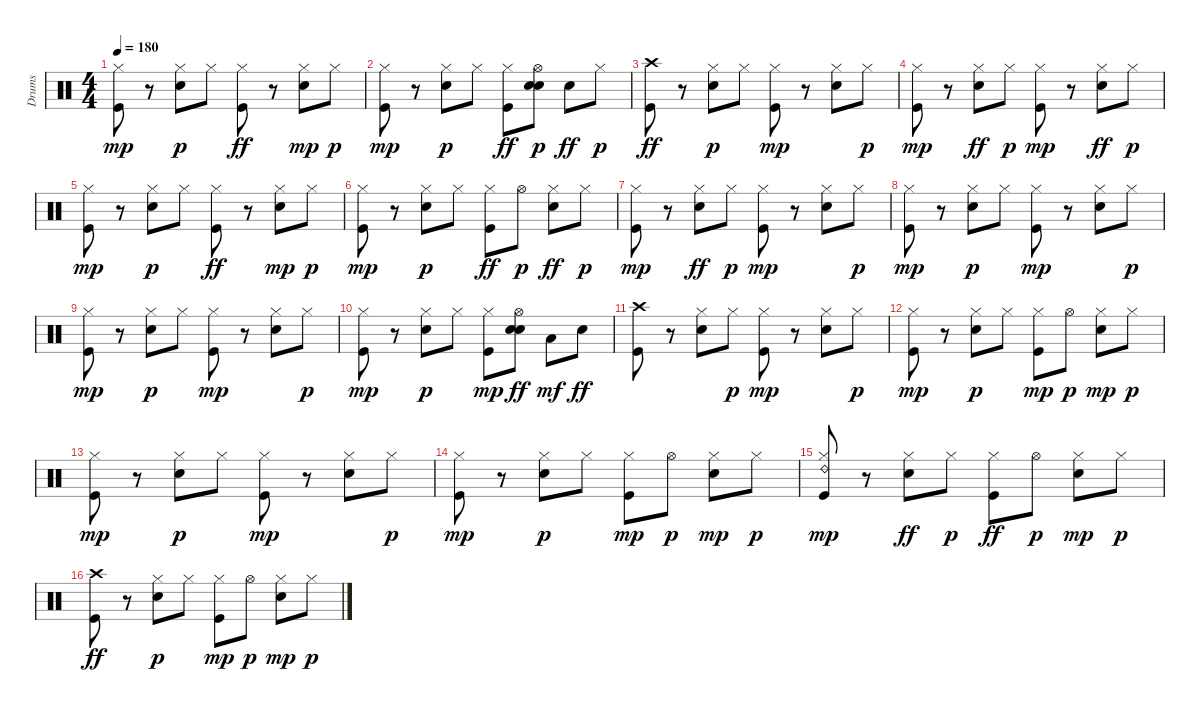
\track ("Drums" "Drums") {instrument percussion}
\staff {score}
\articulation defaults
\ts (4 4)
\tempo 180
\clef neutral
\ks c
("Kick (hit)" "Hi-Hat (closed)").8{dy mp} r.8 ("Snare (hit) 2" "Hi-Hat (closed)").8{dy p} "Hi-Hat (closed)".8 ("Hi-Hat (closed)" "Kick (hit)").8{dy ff} r.8 ("Snare (hit) 2" "Hi-Hat (closed)").8{dy mp} "Hi-Hat (closed)".8{dy p} |
("Kick (hit)" "Hi-Hat (closed)").8{dy mp} r.8 ("Snare (hit) 2" "Hi-Hat (closed)").8{dy p} "Hi-Hat (closed)".8 ("Hi-Hat (closed)" "Kick (hit)").8{dy ff} ("Snare (hit) 2" "Hi-Hat (open)" "Snare (hit) 2").8{dy p} "Snare (hit) 2".8{dy ff} "Hi-Hat (closed)".8{dy p} |
("Crash high (hit)" "Kick (hit)").8{dy ff} r.8 ("Snare (hit) 2" "Hi-Hat (closed)").8{dy p} "Hi-Hat (closed)".8 ("Kick (hit)" "Hi-Hat (closed)").8{dy mp} r.8 ("Snare (hit) 2" "Hi-Hat (closed)").8 "Hi-Hat (closed)".8{dy p} |
("Kick (hit)" "Hi-Hat (closed)").8{dy mp} r.8 ("Hi-Hat (closed)" "Snare (hit) 2").8{dy ff} "Hi-Hat (closed)".8{dy p} ("Kick (hit)" "Hi-Hat (closed)").8{dy mp} r.8 ("Hi-Hat (closed)" "Snare (hit) 2").8{dy ff} "Hi-Hat (closed)".8{dy p} |
("Kick (hit)" "Hi-Hat (closed)").8{dy mp} r.8 ("Snare (hit) 2" "Hi-Hat (closed)").8{dy p} "Hi-Hat (closed)".8 ("Hi-Hat (closed)" "Kick (hit)").8{dy ff} r.8 ("Snare (hit) 2" "Hi-Hat (closed)").8{dy mp} "Hi-Hat (closed)".8{dy p} |
("Kick (hit)" "Hi-Hat (closed)").8{dy mp} r.8 ("Snare (hit) 2" "Hi-Hat (closed)").8{dy p} "Hi-Hat (closed)".8 ("Hi-Hat (closed)" "Kick (hit)").8{dy ff} "Hi-Hat (open)".8{dy p} ("Hi-Hat (closed)" "Snare (hit) 2").8{dy ff} "Hi-Hat (closed)".8{dy p} |
("Kick (hit)" "Hi-Hat (closed)").8{dy mp} r.8 ("Hi-Hat (closed)" "Snare (hit) 2").8{dy ff} "Hi-Hat (closed)".8{dy p} ("Kick (hit)" "Hi-Hat (closed)").8{dy mp} r.8 ("Snare (hit) 2" "Hi-Hat (closed)").8 "Hi-Hat (closed)".8{dy p} |
("Kick (hit)" "Hi-Hat (closed)").8{dy mp} r.8 ("Snare (hit) 2" "Hi-Hat (closed)").8{dy p} "Hi-Hat (closed)".8 ("Kick (hit)" "Hi-Hat (closed)").8{dy mp} r.8 ("Snare (hit) 2" "Hi-Hat (closed)").8 "Hi-Hat (closed)".8{dy p} |
("Kick (hit)" "Hi-Hat (closed)").8{dy mp} r.8 ("Snare (hit) 2" "Hi-Hat (closed)").8{dy p} "Hi-Hat (closed)".8 ("Kick (hit)" "Hi-Hat (closed)").8{dy mp} r.8 ("Snare (hit) 2" "Hi-Hat (closed)").8 "Hi-Hat (closed)".8{dy p} |
("Kick (hit)" "Hi-Hat (closed)").8{dy mp} r.8 ("Snare (hit) 2" "Hi-Hat (closed)").8{dy p} "Hi-Hat (closed)".8 ("Kick (hit)" "Hi-Hat (closed)").8{dy mp} ("Snare (hit) 2" "Hi-Hat (open)" "Snare (hit) 2").8{dy ff} "Low Tom (hit)".8{dy mf} "Snare (hit) 2".8{dy ff} |
("Crash high (hit)" "Kick (hit)").8 r.8 ("Hi-Hat (closed)" "Snare (hit) 2").8 "Hi-Hat (closed)".8{dy p} ("Kick (hit)" "Hi-Hat (closed)").8{dy mp} r.8 ("Snare (hit) 2" "Hi-Hat (closed)").8 "Hi-Hat (closed)".8{dy p} |
("Kick (hit)" "Hi-Hat (closed)").8{dy mp} r.8 ("Snare (hit) 2" "Hi-Hat (closed)").8{dy p} "Hi-Hat (closed)".8 ("Kick (hit)" "Hi-Hat (closed)").8{dy mp} "Hi-Hat (open)".8{dy p} ("Snare (hit) 2" "Hi-Hat (closed)").8{dy mp} "Hi-Hat (closed)".8{dy p} |
("Kick (hit)" "Hi-Hat (closed)").8{dy mp} r.8 ("Snare (hit) 2" "Hi-Hat (closed)").8{dy p} "Hi-Hat (closed)".8 ("Kick (hit)" "Hi-Hat (closed)").8{dy mp} r.8 ("Snare (hit) 2" "Hi-Hat (closed)").8 "Hi-Hat (closed)".8{dy p} |
("Kick (hit)" "Hi-Hat (closed)").8{dy mp} r.8 ("Snare (hit) 2" "Hi-Hat (closed)").8{dy p} "Hi-Hat (closed)".8 ("Kick (hit)" "Hi-Hat (closed)").8{dy mp} "Hi-Hat (open)".8{dy p} ("Snare (hit) 2" "Hi-Hat (closed)").8{dy mp} "Hi-Hat (closed)".8{dy p} |
("Ride (bell) 2" "Kick (hit)" "Hi-Hat (closed)").8{dy mp} r.8 ("Hi-Hat (closed)" "Snare (hit) 2").8{dy ff} "Hi-Hat (closed)".8{dy p} ("Hi-Hat (closed)" "Kick (hit)").8{dy ff} "Hi-Hat (open)".8{dy p} ("Snare (hit) 2" "Hi-Hat (closed)").8{dy mp} "Hi-Hat (closed)".8{dy p} |
("Crash high (hit)" "Kick (hit)").8{dy ff} r.8 ("Snare (hit) 2" "Hi-Hat (closed)").8{dy p} "Hi-Hat (closed)".8 ("Kick (hit)" "Hi-Hat (closed)").8{dy mp} "Hi-Hat (open)".8{dy p} ("Snare (hit) 2" "Hi-Hat (closed)").8{dy mp} "Hi-Hat (closed)".8{dy p}
